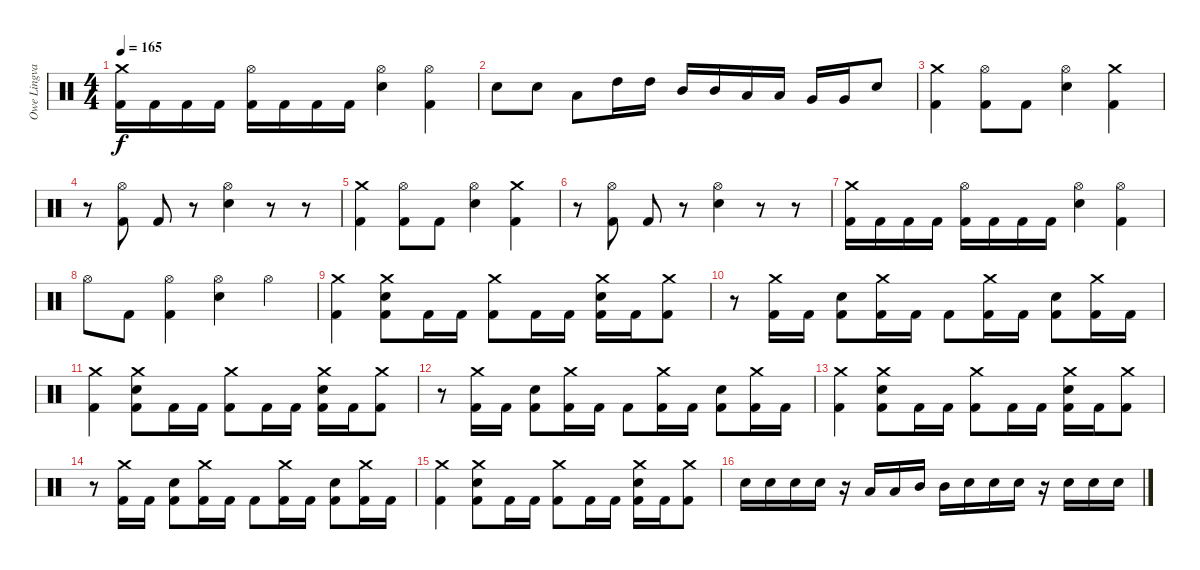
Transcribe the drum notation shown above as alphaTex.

\track ("Owe Lingvall" "Owe Lingva") {instrument percussion}
\staff {score}
\articulation defaults
\ts (4 4)
\tempo 165
\clef neutral
\ks c
("Crash medium (hit)" "Kick (hit) 2").16{dy f} "Kick (hit) 2".16 "Kick (hit) 2".16 "Kick (hit) 2".16 ("Hi-Hat (open)" "Kick (hit) 2").16 "Kick (hit) 2".16 "Kick (hit) 2".16 "Kick (hit) 2".16 ("Hi-Hat (open)" "Snare (hit) 2").4 ("Hi-Hat (open)" "Kick (hit) 2").4 |
"Snare (hit) 2".8 "Snare (hit) 2".8 "Low Tom (hit)".8 "High Tom (hit)".16 "High Tom (hit)".16 "Mid Tom (hit)".16 "Mid Tom (hit)".16 "Low Tom (hit)".16 "Low Tom (hit)".16 "Very Low Tom (hit)".16 "Very Low Tom (hit)".16 "Snare (hit) 2".8 |
("Crash medium (hit)" "Kick (hit) 2").4 ("Hi-Hat (open)" "Kick (hit) 2").8 "Kick (hit) 2".8 ("Hi-Hat (open)" "Snare (hit) 2").4 ("Crash medium (hit)" "Kick (hit) 2").4 |
r.8 ("Hi-Hat (open)" "Kick (hit) 2").8 "Kick (hit) 2".8 r.8 ("Hi-Hat (open)" "Snare (hit) 2").4 r.8 r.8 |
("Crash medium (hit)" "Kick (hit) 2").4 ("Hi-Hat (open)" "Kick (hit) 2").8 "Kick (hit) 2".8 ("Hi-Hat (open)" "Snare (hit) 2").4 ("Crash medium (hit)" "Kick (hit) 2").4 |
r.8 ("Hi-Hat (open)" "Kick (hit) 2").8 "Kick (hit) 2".8 r.8 ("Hi-Hat (open)" "Snare (hit) 2").4 r.8 r.8 |
("Crash medium (hit)" "Kick (hit) 2").16 "Kick (hit) 2".16 "Kick (hit) 2".16 "Kick (hit) 2".16 ("Hi-Hat (open)" "Kick (hit) 2").16 "Kick (hit) 2".16 "Kick (hit) 2".16 "Kick (hit) 2".16 ("Hi-Hat (open)" "Snare (hit) 2").4 ("Hi-Hat (open)" "Kick (hit) 2").4 |
"Hi-Hat (open)".8 "Kick (hit) 2".8 ("Hi-Hat (open)" "Kick (hit) 2").4 ("Hi-Hat (open)" "Snare (hit) 2").4 "Hi-Hat (open)".4 |
("Crash medium (hit)" "Kick (hit) 2").4 ("Crash medium (hit)" "Snare (hit) 2" "Kick (hit) 2").8 "Kick (hit) 2".16 "Kick (hit) 2".16 ("Crash medium (hit)" "Kick (hit) 2").8 "Kick (hit) 2".16 "Kick (hit) 2".16 ("Crash medium (hit)" "Snare (hit) 2" "Kick (hit) 2").16 "Kick (hit) 2".16 ("Crash medium (hit)" "Kick (hit) 2").8 |
r.8 ("Crash medium (hit)" "Kick (hit) 2").16 "Kick (hit) 2".16 ("Snare (hit) 2" "Kick (hit) 2").8 ("Crash medium (hit)" "Kick (hit) 2").16 "Kick (hit) 2".16 "Kick (hit) 2".8 ("Crash medium (hit)" "Kick (hit) 2").16 "Kick (hit) 2".16 ("Snare (hit) 2" "Kick (hit) 2").8 ("Crash medium (hit)" "Kick (hit) 2").16 "Kick (hit) 2".16 |
("Crash medium (hit)" "Kick (hit) 2").4 ("Crash medium (hit)" "Snare (hit) 2" "Kick (hit) 2").8 "Kick (hit) 2".16 "Kick (hit) 2".16 ("Crash medium (hit)" "Kick (hit) 2").8 "Kick (hit) 2".16 "Kick (hit) 2".16 ("Crash medium (hit)" "Snare (hit) 2" "Kick (hit) 2").16 "Kick (hit) 2".16 ("Crash medium (hit)" "Kick (hit) 2").8 |
r.8 ("Crash medium (hit)" "Kick (hit) 2").16 "Kick (hit) 2".16 ("Snare (hit) 2" "Kick (hit) 2").8 ("Crash medium (hit)" "Kick (hit) 2").16 "Kick (hit) 2".16 "Kick (hit) 2".8 ("Crash medium (hit)" "Kick (hit) 2").16 "Kick (hit) 2".16 ("Snare (hit) 2" "Kick (hit) 2").8 ("Crash medium (hit)" "Kick (hit) 2").16 "Kick (hit) 2".16 |
("Crash medium (hit)" "Kick (hit) 2").4 ("Crash medium (hit)" "Snare (hit) 2" "Kick (hit) 2").8 "Kick (hit) 2".16 "Kick (hit) 2".16 ("Crash medium (hit)" "Kick (hit) 2").8 "Kick (hit) 2".16 "Kick (hit) 2".16 ("Crash medium (hit)" "Snare (hit) 2" "Kick (hit) 2").16 "Kick (hit) 2".16 ("Crash medium (hit)" "Kick (hit) 2").8 |
r.8 ("Crash medium (hit)" "Kick (hit) 2").16 "Kick (hit) 2".16 ("Snare (hit) 2" "Kick (hit) 2").8 ("Crash medium (hit)" "Kick (hit) 2").16 "Kick (hit) 2".16 "Kick (hit) 2".8 ("Crash medium (hit)" "Kick (hit) 2").16 "Kick (hit) 2".16 ("Snare (hit) 2" "Kick (hit) 2").8 ("Crash medium (hit)" "Kick (hit) 2").16 "Kick (hit) 2".16 |
("Crash medium (hit)" "Kick (hit) 2").4 ("Crash medium (hit)" "Snare (hit) 2" "Kick (hit) 2").8 "Kick (hit) 2".16 "Kick (hit) 2".16 ("Crash medium (hit)" "Kick (hit) 2").8 "Kick (hit) 2".16 "Kick (hit) 2".16 ("Crash medium (hit)" "Snare (hit) 2" "Kick (hit) 2").16 "Kick (hit) 2".16 ("Crash medium (hit)" "Kick (hit) 2").8 |
"Snare (hit) 2".16 "Snare (hit) 2".16 "Snare (hit) 2".16 "Snare (hit) 2".16 r.16 "Low Tom (hit)".16 "Low Tom (hit)".16 "Mid Tom (hit)".16 "Mid Tom (hit)".16 "Snare (hit) 2".16 "Snare (hit) 2".16 "Snare (hit) 2".16 r.16 "Snare (hit) 2".16 "Snare (hit) 2".16 "Snare (hit) 2".16
